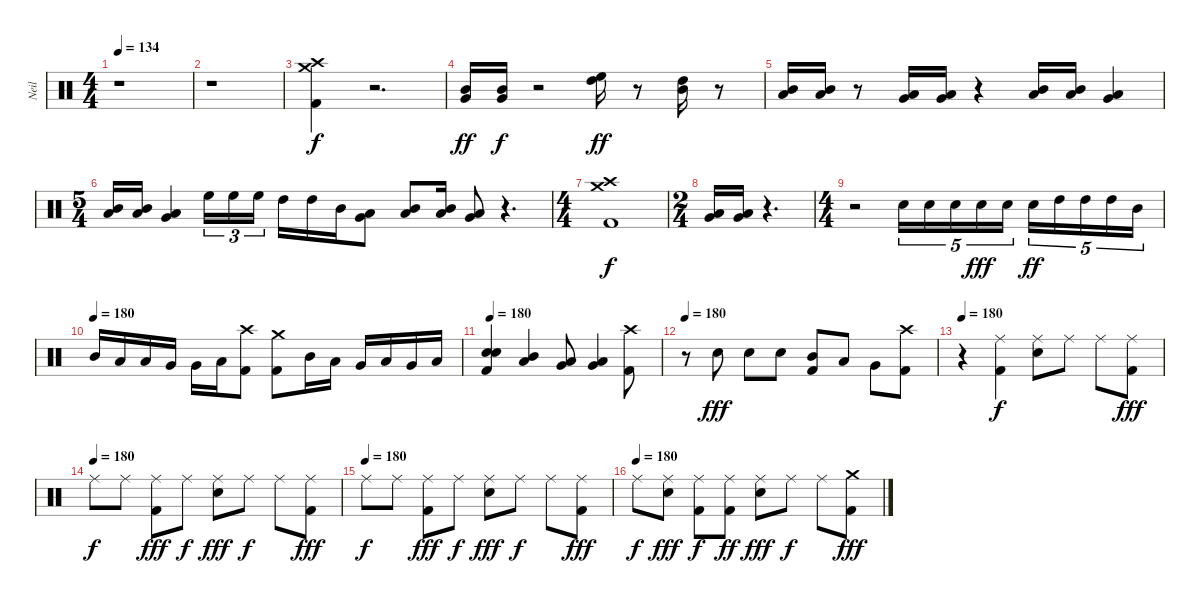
\track ("Neil" "Neil") {instrument percussion}
\staff {score}
\articulation defaults
\ts (4 4)
\tempo 134
\clef neutral
\ks c
r.1{dy f} |
r.1 |
("Crash high (hit)" "Crash medium (hit)" "Kick (hit) 2").4 r.2{d} |
("Very Low Tom (hit)" "Mid Tom (hit)").16{dy ff} ("Very Low Tom (hit)" "Mid Tom (hit)").16{dy f} r.2 ("High Tom (hit)" "High Floor Tom (hit)").16{dy ff} r.8 ("Mid Tom (hit)" "High Tom (hit)").16 r.8 |
("Low Tom (hit)" "Mid Tom (hit)").16 ("Low Tom (hit)" "Mid Tom (hit)").16 r.8 ("Low Floor Tom (hit)" "Very Low Tom (hit)").16 ("Low Floor Tom (hit)" "Very Low Tom (hit)").16 r.4 ("Low Tom (hit)" "Mid Tom (hit)").16 ("Low Tom (hit)" "Mid Tom (hit)").16 ("Low Floor Tom (hit)" "Very Low Tom (hit)").4 |
\ts (5 4)
("Low Tom (hit)" "Mid Tom (hit)").16 ("Low Tom (hit)" "Mid Tom (hit)").16 ("Low Floor Tom (hit)" "Very Low Tom (hit)").4 "High Floor Tom (hit)".16{tu (3 2)} "High Floor Tom (hit)".16{tu (3 2)} "High Floor Tom (hit)".16{tu (3 2)} "High Tom (hit)".16 "High Tom (hit)".16 "Mid Tom (hit)".16 ("Very Low Tom (hit)" "Low Tom (hit)").8 ("Low Tom (hit)" "Mid Tom (hit)").8 ("Mid Tom (hit)" "Low Tom (hit)").16 ("Low Floor Tom (hit)" "Very Low Tom (hit)").8 r.4{d} |
\ts (4 4)
("Crash medium (hit)" "Crash high (hit)" "Kick (hit) 2").1{dy f} |
\ts (2 4)
("Low Floor Tom (hit)" "Very Low Tom (hit)").16 ("Low Floor Tom (hit)" "Very Low Tom (hit)").16 r.4{d} |
\ts (4 4)
r.2 "Snare (hit) 2".16{tu (5 4)} "Snare (hit) 2".16{tu (5 4)} "Snare (hit) 2".16{tu (5 4)} "Snare (hit) 2".16{tu (5 4) dy fff} "Snare (hit) 2".16{tu (5 4)} "Snare (hit) 2".16{tu (5 4) dy ff} "High Tom (hit)".16{tu (5 4)} "High Tom (hit)".16{tu (5 4)} "High Tom (hit)".16{tu (5 4)} "Mid Tom (hit)".16{tu (5 4)} |
\tempo (180)
"Mid Tom (hit)".16 "Low Tom (hit)".16 "Low Tom (hit)".16 "Very Low Tom (hit)".16 "Very Low Tom (hit)".16 "Low Floor Tom (hit)".16 ("Crash high (hit)" "Kick (hit) 2").8 ("Crash medium (hit)" "Kick (hit) 2").8 "Mid Tom (hit)".16 "Low Tom (hit)".16 "Very Low Tom (hit)".16 "Low Tom (hit)".16 "Very Low Tom (hit)".16 "Low Floor Tom (hit)".16 |
\tempo 180
("Snare (hit) 2" "Snare (hit) 2" "Kick (hit) 2").4 ("Low Tom (hit)" "Mid Tom (hit)").4 ("Very Low Tom (hit)" "Low Tom (hit)").8 ("Very Low Tom (hit)" "Low Tom (hit)").4 ("Crash high (hit)" "Kick (hit) 2").8 |
\tempo 180
r.8 "Snare (hit) 2".8{dy fff} "Snare (hit) 2".8 "Snare (hit) 2".8 ("Kick (hit) 2" "Mid Tom (hit)").8 "Low Tom (hit)".8 "Very Low Tom (hit)".8 ("Kick (hit) 2" "Crash high (hit)").8 |
\tempo 180
r.4 ("Kick (hit) 2" "Ride (middle)").4{dy f} ("Ride (middle)" "Snare (hit) 2").8 "Ride (middle)".8 "Ride (middle)".8 ("Kick (hit) 2" "Ride (middle)").8{dy fff} |
\tempo (180)
"Ride (middle)".8{dy f} "Ride (middle)".8 ("Kick (hit) 2" "Ride (middle)").8{dy fff} "Ride (middle)".8{dy f} ("Snare (hit) 2" "Ride (middle)").8{dy fff} "Ride (middle)".8{dy f} "Ride (middle)".8 ("Kick (hit) 2" "Ride (middle)").8{dy fff} |
\tempo (180)
"Ride (middle)".8{dy f} "Ride (middle)".8 ("Kick (hit) 2" "Ride (middle)").8{dy fff} "Ride (middle)".8{dy f} ("Snare (hit) 2" "Ride (middle)").8{dy fff} "Ride (middle)".8{dy f} "Ride (middle)".8 ("Kick (hit) 2" "Ride (middle)").8{dy fff} |
\tempo (180)
"Ride (middle)".8{dy f} ("Snare (hit) 2" "Ride (middle)").8{dy fff} ("Kick (hit) 2" "Ride (middle)").8{dy f} ("Kick (hit) 2" "Ride (middle)").8{dy ff} ("Snare (hit) 2" "Ride (middle)").8{dy fff} "Ride (middle)".8{dy f} "Ride (middle)".8 ("Crash medium (hit)" "Kick (hit) 2").8{dy fff}
